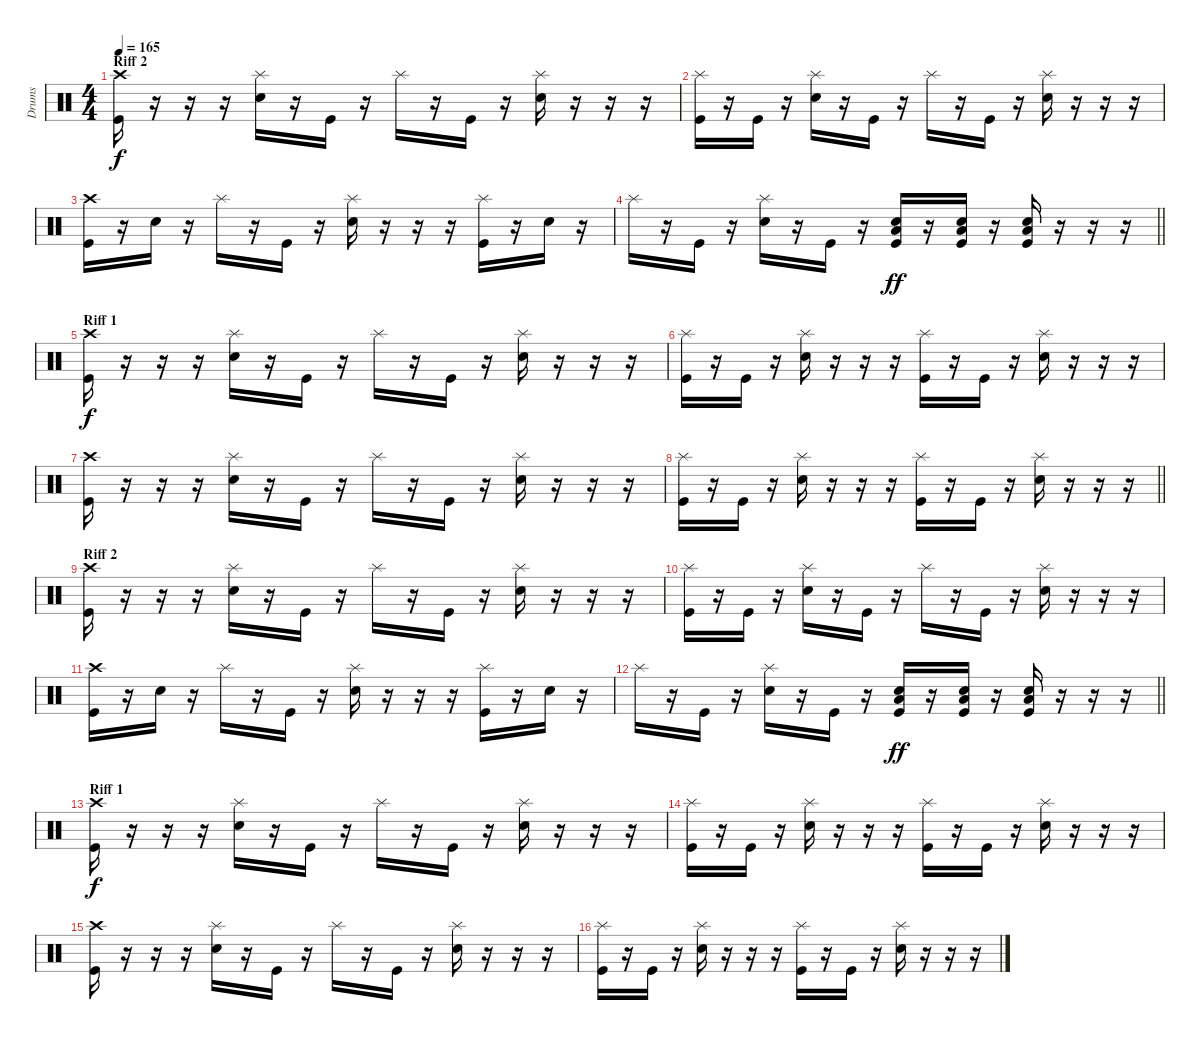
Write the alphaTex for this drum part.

\track ("Drums" "Drums") {instrument percussion}
\staff {score}
\articulation defaults
\ts (4 4)
\section ("" "Riff 2")
\tempo 165
\clef neutral
\ks c
("Crash high (hit)" "Kick (hit)").16{dy f} r.16 r.16 r.16 ("Splash (hit)" "Electric Snare (hit)").16 r.16 "Kick (hit)".16 r.16 "Splash (hit)".16 r.16 "Kick (hit)".16 r.16 ("Splash (hit)" "Electric Snare (hit)").16 r.16 r.16 r.16 |
("Splash (hit)" "Kick (hit)").16 r.16 "Kick (hit)".16 r.16 ("Splash (hit)" "Electric Snare (hit)").16 r.16 "Kick (hit)".16 r.16 "Splash (hit)".16 r.16 "Kick (hit)".16 r.16 ("Splash (hit)" "Electric Snare (hit)").16 r.16 r.16 r.16 |
("Crash high (hit)" "Kick (hit)").16 r.16 "Electric Snare (hit)".16 r.16 "Splash (hit)".16 r.16 "Kick (hit)".16 r.16 ("Splash (hit)" "Electric Snare (hit)").16 r.16 r.16 r.16 ("Splash (hit)" "Kick (hit)").16 r.16 "Electric Snare (hit)".16 r.16 |
\barLineRight lightlight "Splash (hit)".16
r.16 "Kick (hit)".16 r.16 ("Splash (hit)" "Electric Snare (hit)").16 r.16 "Kick (hit)".16 r.16 ("Low Floor Tom (hit)" "Electric Snare (hit)" "Kick (hit)").16{dy ff} r.16 ("Low Floor Tom (hit)" "Electric Snare (hit)" "Kick (hit)").16 r.16 ("Low Floor Tom (hit)" "Electric Snare (hit)" "Kick (hit)").16 r.16 r.16 r.16 |
\section ("" "Riff 1")
("Crash high (hit)" "Kick (hit)").16{dy f} r.16 r.16 r.16 ("Splash (hit)" "Electric Snare (hit)").16 r.16 "Kick (hit)".16 r.16 "Splash (hit)".16 r.16 "Kick (hit)".16 r.16 ("Splash (hit)" "Electric Snare (hit)").16 r.16 r.16 r.16 |
("Splash (hit)" "Kick (hit)").16 r.16 "Kick (hit)".16 r.16 ("Splash (hit)" "Electric Snare (hit)").16 r.16 r.16 r.16 ("Splash (hit)" "Kick (hit)").16 r.16 "Kick (hit)".16 r.16 ("Splash (hit)" "Electric Snare (hit)").16 r.16 r.16 r.16 |
("Crash high (hit)" "Kick (hit)").16 r.16 r.16 r.16 ("Splash (hit)" "Electric Snare (hit)").16 r.16 "Kick (hit)".16 r.16 "Splash (hit)".16 r.16 "Kick (hit)".16 r.16 ("Splash (hit)" "Electric Snare (hit)").16 r.16 r.16 r.16 |
\barLineRight lightlight
("Splash (hit)" "Kick (hit)").16 r.16 "Kick (hit)".16 r.16 ("Splash (hit)" "Electric Snare (hit)").16 r.16 r.16 r.16 ("Splash (hit)" "Kick (hit)").16 r.16 "Kick (hit)".16 r.16 ("Splash (hit)" "Electric Snare (hit)").16 r.16 r.16 r.16 |
\section ("" "Riff 2")
("Crash high (hit)" "Kick (hit)").16 r.16 r.16 r.16 ("Splash (hit)" "Electric Snare (hit)").16 r.16 "Kick (hit)".16 r.16 "Splash (hit)".16 r.16 "Kick (hit)".16 r.16 ("Splash (hit)" "Electric Snare (hit)").16 r.16 r.16 r.16 |
("Splash (hit)" "Kick (hit)").16 r.16 "Kick (hit)".16 r.16 ("Splash (hit)" "Electric Snare (hit)").16 r.16 "Kick (hit)".16 r.16 "Splash (hit)".16 r.16 "Kick (hit)".16 r.16 ("Splash (hit)" "Electric Snare (hit)").16 r.16 r.16 r.16 |
("Crash high (hit)" "Kick (hit)").16 r.16 "Electric Snare (hit)".16 r.16 "Splash (hit)".16 r.16 "Kick (hit)".16 r.16 ("Splash (hit)" "Electric Snare (hit)").16 r.16 r.16 r.16 ("Splash (hit)" "Kick (hit)").16 r.16 "Electric Snare (hit)".16 r.16 |
\barLineRight lightlight "Splash (hit)".16
r.16 "Kick (hit)".16 r.16 ("Splash (hit)" "Electric Snare (hit)").16 r.16 "Kick (hit)".16 r.16 ("Low Floor Tom (hit)" "Electric Snare (hit)" "Kick (hit)").16{dy ff} r.16 ("Low Floor Tom (hit)" "Electric Snare (hit)" "Kick (hit)").16 r.16 ("Low Floor Tom (hit)" "Electric Snare (hit)" "Kick (hit)").16 r.16 r.16 r.16 |
\section ("" "Riff 1")
("Crash high (hit)" "Kick (hit)").16{dy f} r.16 r.16 r.16 ("Splash (hit)" "Electric Snare (hit)").16 r.16 "Kick (hit)".16 r.16 "Splash (hit)".16 r.16 "Kick (hit)".16 r.16 ("Splash (hit)" "Electric Snare (hit)").16 r.16 r.16 r.16 |
("Splash (hit)" "Kick (hit)").16 r.16 "Kick (hit)".16 r.16 ("Splash (hit)" "Electric Snare (hit)").16 r.16 r.16 r.16 ("Splash (hit)" "Kick (hit)").16 r.16 "Kick (hit)".16 r.16 ("Splash (hit)" "Electric Snare (hit)").16 r.16 r.16 r.16 |
("Crash high (hit)" "Kick (hit)").16 r.16 r.16 r.16 ("Splash (hit)" "Electric Snare (hit)").16 r.16 "Kick (hit)".16 r.16 "Splash (hit)".16 r.16 "Kick (hit)".16 r.16 ("Splash (hit)" "Electric Snare (hit)").16 r.16 r.16 r.16 |
("Splash (hit)" "Kick (hit)").16 r.16 "Kick (hit)".16 r.16 ("Splash (hit)" "Electric Snare (hit)").16 r.16 r.16 r.16 ("Splash (hit)" "Kick (hit)").16 r.16 "Kick (hit)".16 r.16 ("Splash (hit)" "Electric Snare (hit)").16 r.16 r.16 r.16
